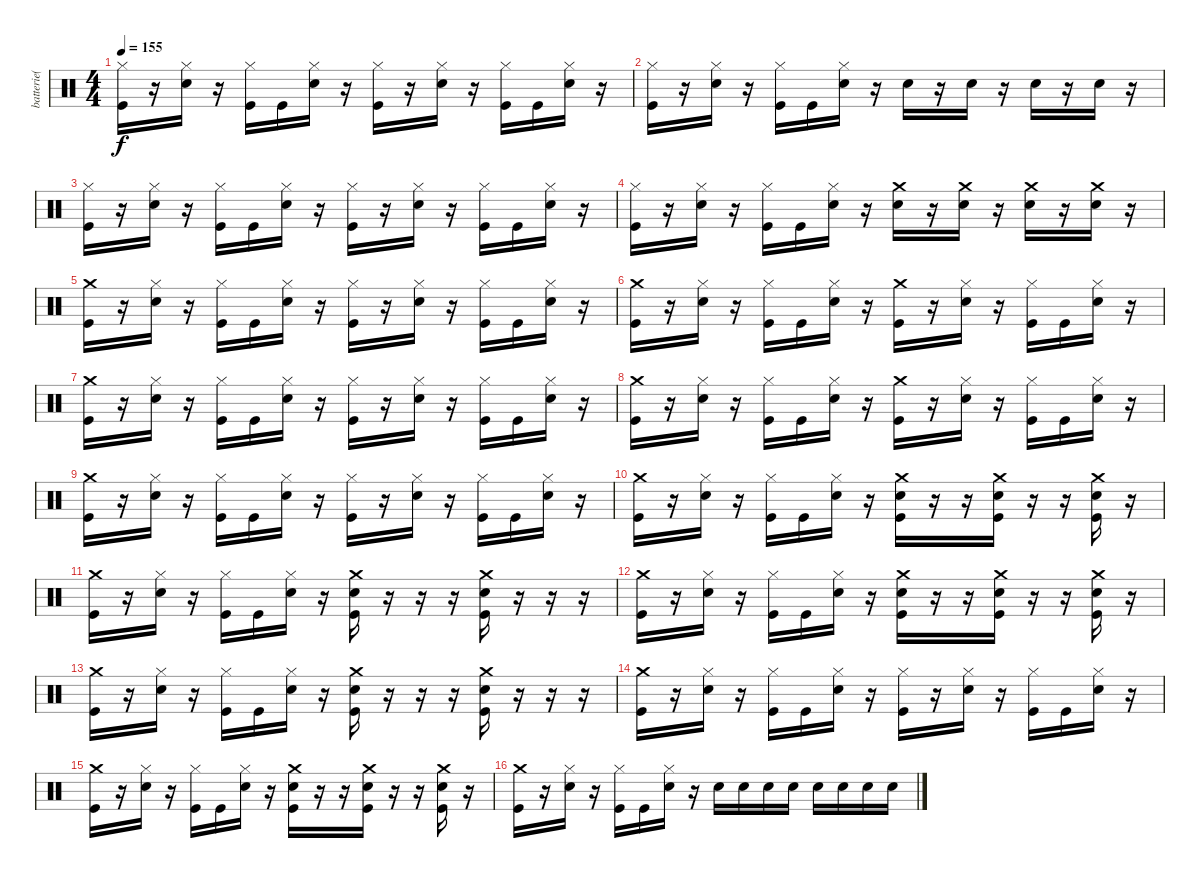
\track ("batterie( Shawn )" "batterie( ") {instrument percussion}
\staff {score}
\articulation defaults
\ts (4 4)
\tempo 155
\clef neutral
\ks c
("Hi-Hat (closed)" "Kick (hit)").16{dy f} r.16 ("Hi-Hat (closed)" "Snare (hit) 2").16 r.16 ("Hi-Hat (closed)" "Kick (hit)").16 "Kick (hit)".16 ("Hi-Hat (closed)" "Snare (hit) 2").16 r.16 ("Hi-Hat (closed)" "Kick (hit)").16 r.16 ("Hi-Hat (closed)" "Snare (hit) 2").16 r.16 ("Hi-Hat (closed)" "Kick (hit)").16 "Kick (hit)".16 ("Hi-Hat (closed)" "Snare (hit) 2").16 r.16 |
("Hi-Hat (closed)" "Kick (hit)").16 r.16 ("Hi-Hat (closed)" "Snare (hit) 2").16 r.16 ("Hi-Hat (closed)" "Kick (hit)").16 "Kick (hit)".16 ("Hi-Hat (closed)" "Snare (hit) 2").16 r.16 "Snare (hit) 2".16 r.16 "Snare (hit) 2".16 r.16 "Snare (hit) 2".16 r.16 "Snare (hit) 2".16 r.16 |
("Hi-Hat (closed)" "Kick (hit)").16 r.16 ("Hi-Hat (closed)" "Snare (hit) 2").16 r.16 ("Hi-Hat (closed)" "Kick (hit)").16 "Kick (hit)".16 ("Hi-Hat (closed)" "Snare (hit) 2").16 r.16 ("Hi-Hat (closed)" "Kick (hit)").16 r.16 ("Hi-Hat (closed)" "Snare (hit) 2").16 r.16 ("Hi-Hat (closed)" "Kick (hit)").16 "Kick (hit)".16 ("Hi-Hat (closed)" "Snare (hit) 2").16 r.16 |
("Hi-Hat (closed)" "Kick (hit)").16 r.16 ("Hi-Hat (closed)" "Snare (hit) 2").16 r.16 ("Hi-Hat (closed)" "Kick (hit)").16 "Kick (hit)".16 ("Hi-Hat (closed)" "Snare (hit) 2").16 r.16 ("Crash medium (hit)" "Snare (hit) 2").16 r.16 ("Crash medium (hit)" "Snare (hit) 2").16 r.16 ("Crash medium (hit)" "Snare (hit) 2").16 r.16 ("Crash medium (hit)" "Snare (hit) 2").16 r.16 |
("Crash medium (hit)" "Kick (hit)").16 r.16 ("Hi-Hat (closed)" "Snare (hit) 2").16 r.16 ("Hi-Hat (closed)" "Kick (hit)").16 "Kick (hit)".16 ("Hi-Hat (closed)" "Snare (hit) 2").16 r.16 ("Hi-Hat (closed)" "Kick (hit)").16 r.16 ("Hi-Hat (closed)" "Snare (hit) 2").16 r.16 ("Hi-Hat (closed)" "Kick (hit)").16 "Kick (hit)".16 ("Hi-Hat (closed)" "Snare (hit) 2").16 r.16 |
("Crash medium (hit)" "Kick (hit)").16 r.16 ("Hi-Hat (closed)" "Snare (hit) 2").16 r.16 ("Hi-Hat (closed)" "Kick (hit)").16 "Kick (hit)".16 ("Hi-Hat (closed)" "Snare (hit) 2").16 r.16 ("Crash medium (hit)" "Kick (hit)").16 r.16 ("Hi-Hat (closed)" "Snare (hit) 2").16 r.16 ("Hi-Hat (closed)" "Kick (hit)").16 "Kick (hit)".16 ("Hi-Hat (closed)" "Snare (hit) 2").16 r.16 |
("Crash medium (hit)" "Kick (hit)").16 r.16 ("Hi-Hat (closed)" "Snare (hit) 2").16 r.16 ("Hi-Hat (closed)" "Kick (hit)").16 "Kick (hit)".16 ("Hi-Hat (closed)" "Snare (hit) 2").16 r.16 ("Hi-Hat (closed)" "Kick (hit)").16 r.16 ("Hi-Hat (closed)" "Snare (hit) 2").16 r.16 ("Hi-Hat (closed)" "Kick (hit)").16 "Kick (hit)".16 ("Hi-Hat (closed)" "Snare (hit) 2").16 r.16 |
("Crash medium (hit)" "Kick (hit)").16 r.16 ("Hi-Hat (closed)" "Snare (hit) 2").16 r.16 ("Hi-Hat (closed)" "Kick (hit)").16 "Kick (hit)".16 ("Hi-Hat (closed)" "Snare (hit) 2").16 r.16 ("Crash medium (hit)" "Kick (hit)").16 r.16 ("Hi-Hat (closed)" "Snare (hit) 2").16 r.16 ("Hi-Hat (closed)" "Kick (hit)").16 "Kick (hit)".16 ("Hi-Hat (closed)" "Snare (hit) 2").16 r.16 |
("Crash medium (hit)" "Kick (hit)").16 r.16 ("Hi-Hat (closed)" "Snare (hit) 2").16 r.16 ("Hi-Hat (closed)" "Kick (hit)").16 "Kick (hit)".16 ("Hi-Hat (closed)" "Snare (hit) 2").16 r.16 ("Hi-Hat (closed)" "Kick (hit)").16 r.16 ("Hi-Hat (closed)" "Snare (hit) 2").16 r.16 ("Hi-Hat (closed)" "Kick (hit)").16 "Kick (hit)".16 ("Hi-Hat (closed)" "Snare (hit) 2").16 r.16 |
("Crash medium (hit)" "Kick (hit)").16 r.16 ("Hi-Hat (closed)" "Snare (hit) 2").16 r.16 ("Hi-Hat (closed)" "Kick (hit)").16 "Kick (hit)".16 ("Hi-Hat (closed)" "Snare (hit) 2").16 r.16 ("Crash medium (hit)" "Snare (hit) 2" "Kick (hit)").16 r.16 r.16 ("Crash medium (hit)" "Snare (hit) 2" "Kick (hit)").16 r.16 r.16 ("Crash medium (hit)" "Snare (hit) 2" "Kick (hit)").16 r.16 |
("Crash medium (hit)" "Kick (hit)").16 r.16 ("Hi-Hat (closed)" "Snare (hit) 2").16 r.16 ("Hi-Hat (closed)" "Kick (hit)").16 "Kick (hit)".16 ("Hi-Hat (closed)" "Snare (hit) 2").16 r.16 ("Crash medium (hit)" "Snare (hit) 2" "Kick (hit)").16 r.16 r.16 r.16 ("Crash medium (hit)" "Snare (hit) 2" "Kick (hit)").16 r.16 r.16 r.16 |
("Crash medium (hit)" "Kick (hit)").16 r.16 ("Hi-Hat (closed)" "Snare (hit) 2").16 r.16 ("Hi-Hat (closed)" "Kick (hit)").16 "Kick (hit)".16 ("Hi-Hat (closed)" "Snare (hit) 2").16 r.16 ("Crash medium (hit)" "Snare (hit) 2" "Kick (hit)").16 r.16 r.16 ("Crash medium (hit)" "Snare (hit) 2" "Kick (hit)").16 r.16 r.16 ("Crash medium (hit)" "Snare (hit) 2" "Kick (hit)").16 r.16 |
("Crash medium (hit)" "Kick (hit)").16 r.16 ("Hi-Hat (closed)" "Snare (hit) 2").16 r.16 ("Hi-Hat (closed)" "Kick (hit)").16 "Kick (hit)".16 ("Hi-Hat (closed)" "Snare (hit) 2").16 r.16 ("Crash medium (hit)" "Snare (hit) 2" "Kick (hit)").16 r.16 r.16 r.16 ("Crash medium (hit)" "Snare (hit) 2" "Kick (hit)").16 r.16 r.16 r.16 |
("Crash medium (hit)" "Kick (hit)").16 r.16 ("Hi-Hat (closed)" "Snare (hit) 2").16 r.16 ("Hi-Hat (closed)" "Kick (hit)").16 "Kick (hit)".16 ("Hi-Hat (closed)" "Snare (hit) 2").16 r.16 ("Hi-Hat (closed)" "Kick (hit)").16 r.16 ("Hi-Hat (closed)" "Snare (hit) 2").16 r.16 ("Hi-Hat (closed)" "Kick (hit)").16 "Kick (hit)".16 ("Hi-Hat (closed)" "Snare (hit) 2").16 r.16 |
("Crash medium (hit)" "Kick (hit)").16 r.16 ("Hi-Hat (closed)" "Snare (hit) 2").16 r.16 ("Hi-Hat (closed)" "Kick (hit)").16 "Kick (hit)".16 ("Hi-Hat (closed)" "Snare (hit) 2").16 r.16 ("Crash medium (hit)" "Snare (hit) 2" "Kick (hit)").16 r.16 r.16 ("Crash medium (hit)" "Snare (hit) 2" "Kick (hit)").16 r.16 r.16 ("Crash medium (hit)" "Snare (hit) 2" "Kick (hit)").16 r.16 |
("Crash medium (hit)" "Kick (hit)").16 r.16 ("Hi-Hat (closed)" "Snare (hit) 2").16 r.16 ("Hi-Hat (closed)" "Kick (hit)").16 "Kick (hit)".16 ("Hi-Hat (closed)" "Snare (hit) 2").16 r.16 "Snare (hit) 2".16 "Snare (hit) 2".16 "Snare (hit) 2".16 "Snare (hit) 2".16 "Snare (hit) 2".16 "Snare (hit) 2".16 "Snare (hit) 2".16 "Snare (hit) 2".16
